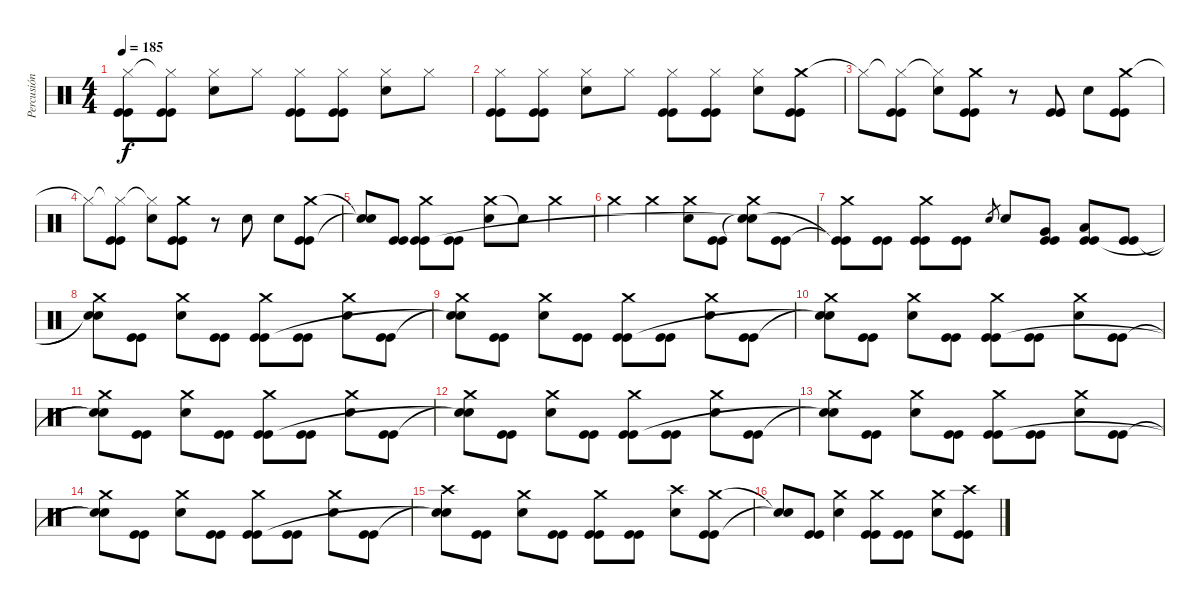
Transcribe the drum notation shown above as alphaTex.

\track ("Percusión" "Percusión") {instrument percussion}
\staff {score}
\articulation defaults
\ts (4 4)
\tempo 185
\clef neutral
\ks c
("Hi-Hat (closed)"{t} "Kick (hit)" "Kick (hit)").8{dy f} ("Hi-Hat (closed)"{t} "Kick (hit)" "Kick (hit)").8 ("Hi-Hat (closed)" "Electric Snare (hit)").8 "Hi-Hat (closed)".8 ("Hi-Hat (closed)" "Kick (hit)" "Kick (hit)").8 ("Hi-Hat (closed)" "Kick (hit)" "Kick (hit)").8 ("Hi-Hat (closed)" "Electric Snare (hit)").8 "Hi-Hat (closed)".8 |
("Hi-Hat (closed)" "Kick (hit)" "Kick (hit)").8 ("Hi-Hat (closed)" "Kick (hit)" "Kick (hit)").8 ("Hi-Hat (closed)" "Electric Snare (hit)").8 "Hi-Hat (closed)".8 ("Hi-Hat (closed)" "Kick (hit)" "Kick (hit)").8 ("Hi-Hat (closed)" "Kick (hit)" "Kick (hit)").8 ("Hi-Hat (closed)" "Electric Snare (hit)").8 ("Crash medium (hit)" "Kick (hit)" "Kick (hit)").8 |
"Hi-Hat (closed)"{t}.8 ("Hi-Hat (closed)"{t} "Kick (hit)" "Kick (hit)").8 ("Hi-Hat (closed)"{t} "Electric Snare (hit)").8 ("Crash medium (hit)" "Kick (hit)" "Kick (hit)").8 r.8 ("Kick (hit)" "Kick (hit)").8 "Electric Snare (hit)".8 ("Crash medium (hit)" "Kick (hit)" "Kick (hit)").8 |
"Hi-Hat (closed)"{t}.8 ("Hi-Hat (closed)"{t} "Kick (hit)" "Kick (hit)").8 ("Hi-Hat (closed)"{t} "Electric Snare (hit)").8 ("Crash medium (hit)" "Kick (hit)" "Kick (hit)").8 r.8 "Electric Snare (hit)".8 "Electric Snare (hit)".8 ("Crash medium (hit)" "Kick (hit)" "Kick (hit)").8 |
("Snare (hit)"{t} "Snare (hit)"{t}).8 ("Kick (hit)" "Kick (hit)").8 ("Crash medium (hit)" "Kick (hit)" "Kick (hit)").8 ("Kick (hit)" "Kick (hit)").8 ("Crash medium (hit)" "Electric Snare (hit)").8 "Snare (hit)"{t}.8 "Crash medium (hit)".4 |
"Crash medium (hit)".4 "Crash medium (hit)".4 ("Crash medium (hit)" "Electric Snare (hit)").8 ("Kick (hit)" "Kick (hit)").8 ("Crash medium (hit)" "Snare (hit)"{t} "Snare (hit)"{t}).8 ("Kick (hit)" "Kick (hit)").8 |
("Crash medium (hit)" "Kick (hit)"{t} "Kick (hit)"{t}).8 ("Kick (hit)" "Kick (hit)").8 ("Crash medium (hit)" "Kick (hit)" "Kick (hit)").8 ("Kick (hit)" "Kick (hit)").8 "Electric Snare (hit)".8{gr} "Electric Snare (hit)".8 ("Very Low Tom (hit)" "Kick (hit)" "Kick (hit)").8 ("Low Floor Tom (hit)" "Kick (hit)" "Kick (hit)").8 ("Kick (hit)" "Kick (hit)").8 |
("Crash medium (hit)" "Snare (hit)"{t} "Snare (hit)"{t}).8 ("Kick (hit)" "Kick (hit)").8 ("Crash medium (hit)" "Electric Snare (hit)").8 ("Kick (hit)" "Kick (hit)").8 ("Crash medium (hit)" "Kick (hit)" "Kick (hit)").8 ("Kick (hit)" "Kick (hit)").8 ("Crash medium (hit)" "Electric Snare (hit)").8 ("Kick (hit)" "Kick (hit)").8 |
("Crash medium (hit)" "Snare (hit)"{t} "Snare (hit)"{t}).8 ("Kick (hit)" "Kick (hit)").8 ("Crash medium (hit)" "Electric Snare (hit)").8 ("Kick (hit)" "Kick (hit)").8 ("Crash medium (hit)" "Kick (hit)" "Kick (hit)").8 ("Kick (hit)" "Kick (hit)").8 ("Crash medium (hit)" "Electric Snare (hit)").8 ("Kick (hit)" "Kick (hit)").8 |
("Crash medium (hit)" "Snare (hit)"{t} "Snare (hit)"{t}).8 ("Kick (hit)" "Kick (hit)").8 ("Crash medium (hit)" "Electric Snare (hit)").8 ("Kick (hit)" "Kick (hit)").8 ("Crash medium (hit)" "Kick (hit)" "Kick (hit)").8 ("Kick (hit)" "Kick (hit)").8 ("Crash medium (hit)" "Electric Snare (hit)").8 ("Kick (hit)" "Kick (hit)").8 |
("Crash medium (hit)" "Snare (hit)"{t} "Snare (hit)"{t}).8 ("Kick (hit)" "Kick (hit)").8 ("Crash medium (hit)" "Electric Snare (hit)").8 ("Kick (hit)" "Kick (hit)").8 ("Crash medium (hit)" "Kick (hit)" "Kick (hit)").8 ("Kick (hit)" "Kick (hit)").8 ("Crash medium (hit)" "Electric Snare (hit)").8 ("Kick (hit)" "Kick (hit)").8 |
("Crash medium (hit)" "Snare (hit)"{t} "Snare (hit)"{t}).8 ("Kick (hit)" "Kick (hit)").8 ("Crash medium (hit)" "Electric Snare (hit)").8 ("Kick (hit)" "Kick (hit)").8 ("Crash medium (hit)" "Kick (hit)" "Kick (hit)").8 ("Kick (hit)" "Kick (hit)").8 ("Crash medium (hit)" "Electric Snare (hit)").8 ("Kick (hit)" "Kick (hit)").8 |
("Crash medium (hit)" "Snare (hit)"{t} "Snare (hit)"{t}).8 ("Kick (hit)" "Kick (hit)").8 ("Crash medium (hit)" "Electric Snare (hit)").8 ("Kick (hit)" "Kick (hit)").8 ("Crash medium (hit)" "Kick (hit)" "Kick (hit)").8 ("Kick (hit)" "Kick (hit)").8 ("Crash medium (hit)" "Electric Snare (hit)").8 ("Kick (hit)" "Kick (hit)").8 |
("Crash medium (hit)" "Snare (hit)"{t} "Snare (hit)"{t}).8 ("Kick (hit)" "Kick (hit)").8 ("Crash medium (hit)" "Electric Snare (hit)").8 ("Kick (hit)" "Kick (hit)").8 ("Crash medium (hit)" "Kick (hit)" "Kick (hit)").8 ("Kick (hit)" "Kick (hit)").8 ("Crash medium (hit)" "Electric Snare (hit)").8 ("Kick (hit)" "Kick (hit)").8 |
("Crash high (hit)" "Snare (hit)"{t} "Snare (hit)"{t}).8 ("Kick (hit)" "Kick (hit)").8 ("Crash medium (hit)" "Electric Snare (hit)").8 ("Kick (hit)" "Kick (hit)").8 ("Crash medium (hit)" "Kick (hit)" "Kick (hit)").8 ("Kick (hit)" "Kick (hit)").8 ("Crash high (hit)" "Electric Snare (hit)").8 ("Crash medium (hit)" "Kick (hit)" "Kick (hit)").8 |
("Snare (hit)"{t} "Snare (hit)"{t}).8 ("Kick (hit)" "Kick (hit)").8 ("Crash medium (hit)" "Electric Snare (hit)").4 ("Crash medium (hit)" "Kick (hit)" "Kick (hit)").8 ("Kick (hit)" "Kick (hit)").8 ("Crash medium (hit)" "Electric Snare (hit)").8 ("Crash high (hit)" "Kick (hit)" "Kick (hit)").8
